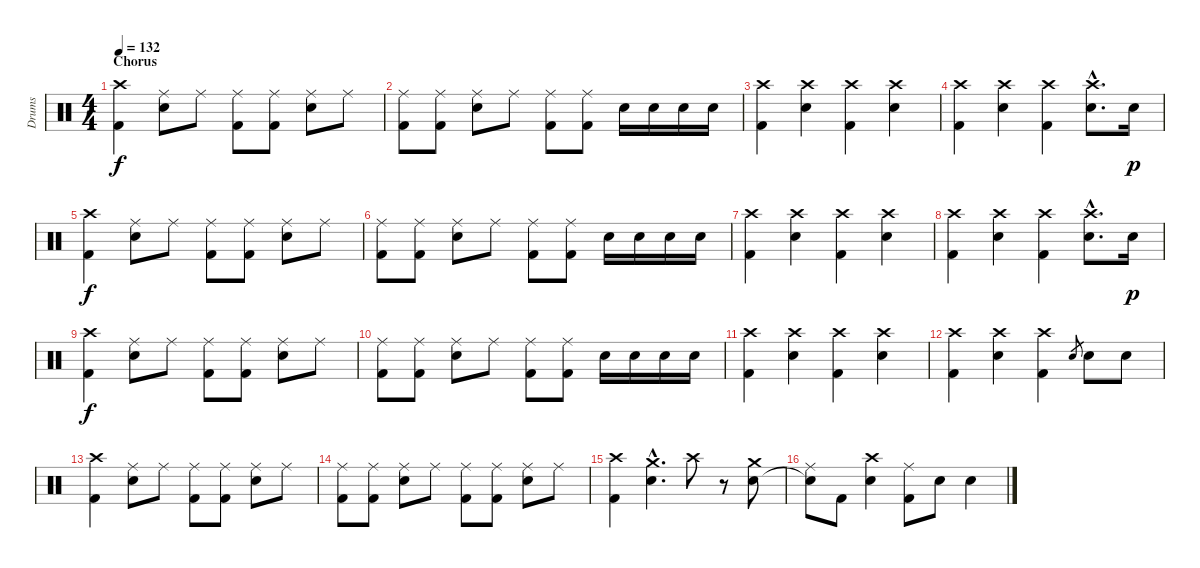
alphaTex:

\track ("Drums" "Drums") {instrument percussion}
\staff {score}
\articulation defaults
\ts (4 4)
\section ("" "Chorus")
\tempo 132
\clef neutral
\ks c
("Crash high (hit)" "Kick (hit) 2").4{dy f} ("Ride (middle)" "Electric Snare (hit)").8 "Ride (middle)".8 ("Ride (middle)" "Kick (hit) 2").8 ("Ride (middle)" "Kick (hit) 2").8 ("Ride (middle)" "Electric Snare (hit)").8 "Ride (middle)".8 |
("Ride (middle)" "Kick (hit) 2").8 ("Ride (middle)" "Kick (hit) 2").8 ("Ride (middle)" "Electric Snare (hit)").8 "Ride (middle)".8 ("Ride (middle)" "Kick (hit) 2").8 ("Ride (middle)" "Kick (hit) 2").8 "Electric Snare (hit)".16 "Electric Snare (hit)".16 "Electric Snare (hit)".16 "Electric Snare (hit)".16 |
("Crash high (hit)" "Kick (hit) 2").4 ("Crash high (hit)" "Electric Snare (hit)").4 ("Crash high (hit)" "Kick (hit) 2").4 ("Crash high (hit)" "Electric Snare (hit)").4 |
("Crash high (hit)" "Kick (hit) 2").4 ("Crash high (hit)" "Electric Snare (hit)").4 ("Crash high (hit)" "Kick (hit) 2").4 ("Crash high (hit)"{hac} "Electric Snare (hit)"{hac}).8{d} "Electric Snare (hit)".16{dy p} |
("Crash high (hit)" "Kick (hit) 2").4{dy f} ("Ride (middle)" "Electric Snare (hit)").8 "Ride (middle)".8 ("Ride (middle)" "Kick (hit) 2").8 ("Ride (middle)" "Kick (hit) 2").8 ("Ride (middle)" "Electric Snare (hit)").8 "Ride (middle)".8 |
("Ride (middle)" "Kick (hit) 2").8 ("Ride (middle)" "Kick (hit) 2").8 ("Ride (middle)" "Electric Snare (hit)").8 "Ride (middle)".8 ("Ride (middle)" "Kick (hit) 2").8 ("Ride (middle)" "Kick (hit) 2").8 "Electric Snare (hit)".16 "Electric Snare (hit)".16 "Electric Snare (hit)".16 "Electric Snare (hit)".16 |
("Crash high (hit)" "Kick (hit) 2").4 ("Crash high (hit)" "Electric Snare (hit)").4 ("Crash high (hit)" "Kick (hit) 2").4 ("Crash high (hit)" "Electric Snare (hit)").4 |
("Crash high (hit)" "Kick (hit) 2").4 ("Crash high (hit)" "Electric Snare (hit)").4 ("Crash high (hit)" "Kick (hit) 2").4 ("Crash high (hit)"{hac} "Electric Snare (hit)"{hac}).8{d} "Electric Snare (hit)".16{dy p} |
("Crash high (hit)" "Kick (hit) 2").4{dy f} ("Ride (middle)" "Electric Snare (hit)").8 "Ride (middle)".8 ("Ride (middle)" "Kick (hit) 2").8 ("Ride (middle)" "Kick (hit) 2").8 ("Ride (middle)" "Electric Snare (hit)").8 "Ride (middle)".8 |
("Ride (middle)" "Kick (hit) 2").8 ("Ride (middle)" "Kick (hit) 2").8 ("Ride (middle)" "Electric Snare (hit)").8 "Ride (middle)".8 ("Ride (middle)" "Kick (hit) 2").8 ("Ride (middle)" "Kick (hit) 2").8 "Electric Snare (hit)".16 "Electric Snare (hit)".16 "Electric Snare (hit)".16 "Electric Snare (hit)".16 |
("Crash high (hit)" "Kick (hit) 2").4 ("Crash high (hit)" "Electric Snare (hit)").4 ("Crash high (hit)" "Kick (hit) 2").4 ("Crash high (hit)" "Electric Snare (hit)").4 |
("Crash high (hit)" "Kick (hit) 2").4 ("Crash high (hit)" "Electric Snare (hit)").4 ("Crash high (hit)" "Kick (hit) 2").4 "Electric Snare (hit)".8{gr} "Electric Snare (hit)".8 "Electric Snare (hit)".8 |
("Crash high (hit)" "Kick (hit) 2").4 ("Ride (middle)" "Electric Snare (hit)").8 "Ride (middle)".8 ("Ride (middle)" "Kick (hit) 2").8 ("Ride (middle)" "Kick (hit) 2").8 ("Ride (middle)" "Electric Snare (hit)").8 "Ride (middle)".8 |
("Ride (middle)" "Kick (hit) 2").8 ("Ride (middle)" "Kick (hit) 2").8 ("Ride (middle)" "Electric Snare (hit)").8 "Ride (middle)".8 ("Ride (middle)" "Kick (hit) 2").8 ("Ride (middle)" "Kick (hit) 2").8 ("Ride (middle)" "Electric Snare (hit)").8 "Ride (middle)".8 |
("Crash high (hit)" "Kick (hit) 2").4 ("Crash medium (hit)"{hac} "Electric Snare (hit)"{hac}).4{d} "Crash high (hit)".8 r.8 ("Crash medium (hit)" "Electric Snare (hit)").8 |
("Ride (middle)" "Snare (hit)"{t}).8 "Kick (hit) 2".8 ("Crash high (hit)" "Electric Snare (hit)").4 ("Ride (middle)" "Kick (hit) 2").8 "Electric Snare (hit)".8 "Electric Snare (hit)".4
